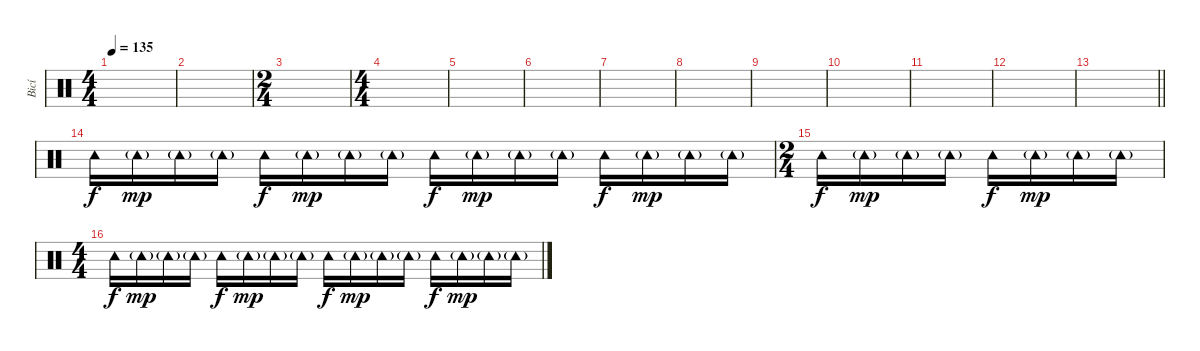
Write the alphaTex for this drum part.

\track ("Bicí" "Bicí") {instrument percussion}
\staff {score}
\articulation defaults
\ts (4 4)
\tempo 135
\clef neutral
\ks c
|
|
\ts (2 4)
|
\ts (4 4)
|
|
|
|
|
|
|
|
|
\barLineRight lightlight
|
\section ("" "")
"Tambourine (hit)".16{dy f} "Tambourine (hit)"{g}.16{dy mp} "Tambourine (hit)"{g}.16 "Tambourine (hit)"{g}.16 "Tambourine (hit)".16{dy f} "Tambourine (hit)"{g}.16{dy mp} "Tambourine (hit)"{g}.16 "Tambourine (hit)"{g}.16 "Tambourine (hit)".16{dy f} "Tambourine (hit)"{g}.16{dy mp} "Tambourine (hit)"{g}.16 "Tambourine (hit)"{g}.16 "Tambourine (hit)".16{dy f} "Tambourine (hit)"{g}.16{dy mp} "Tambourine (hit)"{g}.16 "Tambourine (hit)"{g}.16 |
\ts (2 4)
"Tambourine (hit)".16{dy f} "Tambourine (hit)"{g}.16{dy mp} "Tambourine (hit)"{g}.16 "Tambourine (hit)"{g}.16 "Tambourine (hit)".16{dy f} "Tambourine (hit)"{g}.16{dy mp} "Tambourine (hit)"{g}.16 "Tambourine (hit)"{g}.16 |
\ts (4 4)
"Tambourine (hit)".16{dy f} "Tambourine (hit)"{g}.16{dy mp} "Tambourine (hit)"{g}.16 "Tambourine (hit)"{g}.16 "Tambourine (hit)".16{dy f} "Tambourine (hit)"{g}.16{dy mp} "Tambourine (hit)"{g}.16 "Tambourine (hit)"{g}.16 "Tambourine (hit)".16{dy f} "Tambourine (hit)"{g}.16{dy mp} "Tambourine (hit)"{g}.16 "Tambourine (hit)"{g}.16 "Tambourine (hit)".16{dy f} "Tambourine (hit)"{g}.16{dy mp} "Tambourine (hit)"{g}.16 "Tambourine (hit)"{g}.16
